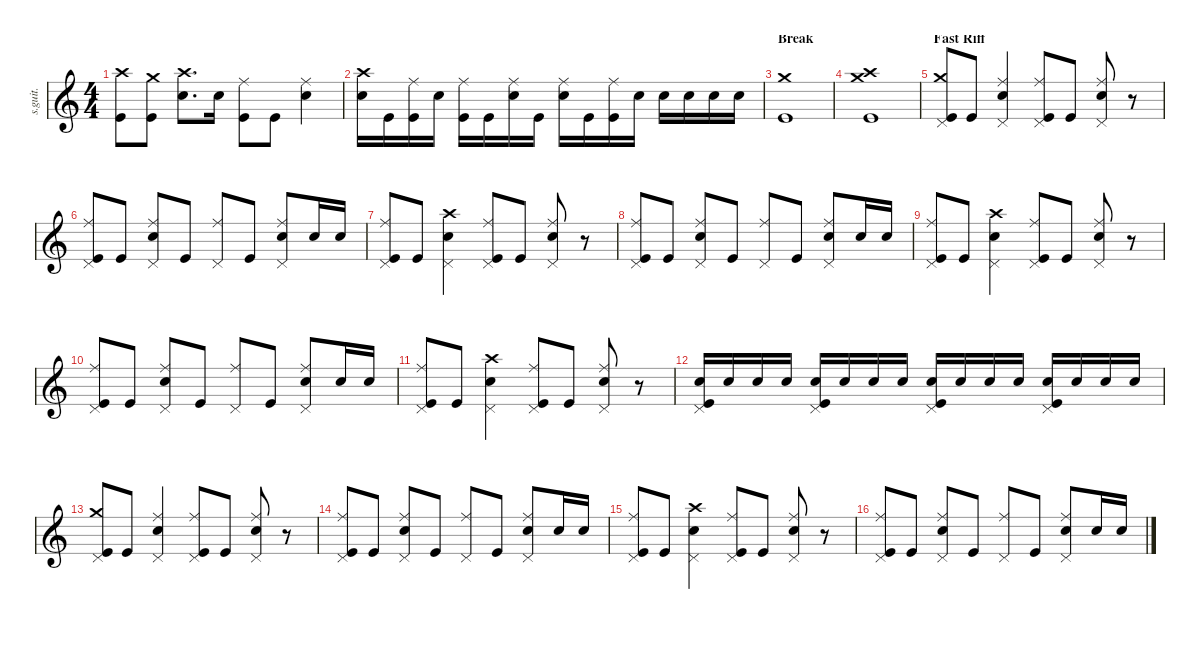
\defaultSystemsLayout 4
\hideDynamics
\bracketExtendMode nobrackets
\track ("Dave Grohl" "s.guit.") {instrument percussion}
\staff {score}
\articulation defaults
\ts (4 4)
\tempo (105 hide)
\clef g2
\ks c
("Crash high (hit)" "Kick (hit)").8{lyrics (0 "") lyrics (1 "") lyrics (2 "") lyrics (3 "") lyrics (4 "") dy f} ("Kick (hit)" "Crash medium (hit)").8{lyrics (0 "") lyrics (1 "") lyrics (2 "") lyrics (3 "") lyrics (4 "")} ("Snare (hit) 2" "Crash high (hit)").8{d lyrics (0 "") lyrics (1 "") lyrics (2 "") lyrics (3 "") lyrics (4 "")} "Snare (hit) 2".16{lyrics (0 "") lyrics (1 "") lyrics (2 "") lyrics (3 "") lyrics (4 "")} ("Ride (middle)" "Kick (hit)").8{lyrics (0 "") lyrics (1 "") lyrics (2 "") lyrics (3 "") lyrics (4 "")} "Kick (hit)".8{lyrics (0 "") lyrics (1 "") lyrics (2 "") lyrics (3 "") lyrics (4 "")} ("Ride (middle)" "Snare (hit) 2").4{lyrics (0 "") lyrics (1 "") lyrics (2 "") lyrics (3 "") lyrics (4 "")} |
("Crash high (hit)" "Snare (hit) 2").16{lyrics (0 "") lyrics (1 "") lyrics (2 "") lyrics (3 "") lyrics (4 "")} "Kick (hit)".16{lyrics (0 "") lyrics (1 "") lyrics (2 "") lyrics (3 "") lyrics (4 "")} ("Ride (middle)" "Kick (hit)").16{lyrics (0 "") lyrics (1 "") lyrics (2 "") lyrics (3 "") lyrics (4 "")} "Snare (hit) 2".16{lyrics (0 "") lyrics (1 "") lyrics (2 "") lyrics (3 "") lyrics (4 "")} ("Ride (middle)" "Kick (hit)").16{lyrics (0 "") lyrics (1 "") lyrics (2 "") lyrics (3 "") lyrics (4 "")} "Kick (hit)".16{lyrics (0 "") lyrics (1 "") lyrics (2 "") lyrics (3 "") lyrics (4 "")} ("Ride (middle)" "Snare (hit) 2").16{lyrics (0 "") lyrics (1 "") lyrics (2 "") lyrics (3 "") lyrics (4 "")} "Kick (hit)".16{lyrics (0 "") lyrics (1 "") lyrics (2 "") lyrics (3 "") lyrics (4 "")} ("Ride (middle)" "Snare (hit) 2").16{lyrics (0 "") lyrics (1 "") lyrics (2 "") lyrics (3 "") lyrics (4 "")} "Kick (hit)".16{lyrics (0 "") lyrics (1 "") lyrics (2 "") lyrics (3 "") lyrics (4 "")} ("Ride (middle)" "Kick (hit)").16{lyrics (0 "") lyrics (1 "") lyrics (2 "") lyrics (3 "") lyrics (4 "")} "Snare (hit) 2".16{lyrics (0 "") lyrics (1 "") lyrics (2 "") lyrics (3 "") lyrics (4 "")} "Snare (hit) 2".16{lyrics (0 "") lyrics (1 "") lyrics (2 "") lyrics (3 "") lyrics (4 "")} "Snare (hit) 2".16{lyrics (0 "") lyrics (1 "") lyrics (2 "") lyrics (3 "") lyrics (4 "")} "Snare (hit) 2".16{lyrics (0 "") lyrics (1 "") lyrics (2 "") lyrics (3 "") lyrics (4 "")} "Snare (hit) 2".16{lyrics (0 "") lyrics (1 "") lyrics (2 "") lyrics (3 "") lyrics (4 "")} |
\section ("" "Break")
("Crash medium (hit)" "Kick (hit)").1{lyrics (0 "") lyrics (1 "") lyrics (2 "") lyrics (3 "") lyrics (4 "")} |
("Crash high (hit)" "Crash medium (hit)" "Kick (hit)").1{lyrics (0 "") lyrics (1 "") lyrics (2 "") lyrics (3 "") lyrics (4 "") dy mf} |
\section ("" "Fast Riff")
\tempo (210 hide)
("Pedal Hi-Hat (hit)" "Crash medium (hit)" "Kick (hit)").8{lyrics (0 "") lyrics (1 "") lyrics (2 "") lyrics (3 "") lyrics (4 "") dy f} "Kick (hit)".8{lyrics (0 "") lyrics (1 "") lyrics (2 "") lyrics (3 "") lyrics (4 "")} ("Pedal Hi-Hat (hit)" "Ride (middle)" "Snare (hit) 2").4{lyrics (0 "") lyrics (1 "") lyrics (2 "") lyrics (3 "") lyrics (4 "")} ("Pedal Hi-Hat (hit)" "Ride (middle)" "Kick (hit)").8{lyrics (0 "") lyrics (1 "") lyrics (2 "") lyrics (3 "") lyrics (4 "")} "Kick (hit)".8{lyrics (0 "") lyrics (1 "") lyrics (2 "") lyrics (3 "") lyrics (4 "")} ("Pedal Hi-Hat (hit)" "Ride (middle)" "Snare (hit) 2").8{lyrics (0 "") lyrics (1 "") lyrics (2 "") lyrics (3 "") lyrics (4 "")} r.8 |
("Pedal Hi-Hat (hit)" "Ride (middle)" "Kick (hit)").8{lyrics (0 "") lyrics (1 "") lyrics (2 "") lyrics (3 "") lyrics (4 "")} "Kick (hit)".8{lyrics (0 "") lyrics (1 "") lyrics (2 "") lyrics (3 "") lyrics (4 "")} ("Pedal Hi-Hat (hit)" "Ride (middle)" "Snare (hit) 2").8{lyrics (0 "") lyrics (1 "") lyrics (2 "") lyrics (3 "") lyrics (4 "")} "Kick (hit)".8{lyrics (0 "") lyrics (1 "") lyrics (2 "") lyrics (3 "") lyrics (4 "")} ("Pedal Hi-Hat (hit)" "Ride (middle)").8{lyrics (0 "") lyrics (1 "") lyrics (2 "") lyrics (3 "") lyrics (4 "")} "Kick (hit)".8{lyrics (0 "") lyrics (1 "") lyrics (2 "") lyrics (3 "") lyrics (4 "")} ("Pedal Hi-Hat (hit)" "Ride (middle)" "Snare (hit) 2").8{lyrics (0 "") lyrics (1 "") lyrics (2 "") lyrics (3 "") lyrics (4 "")} "Snare (hit) 2".16{lyrics (0 "") lyrics (1 "") lyrics (2 "") lyrics (3 "") lyrics (4 "") dy mf} "Snare (hit) 2".16{lyrics (0 "") lyrics (1 "") lyrics (2 "") lyrics (3 "") lyrics (4 "")} |
("Pedal Hi-Hat (hit)" "Ride (middle)" "Kick (hit)").8{lyrics (0 "") lyrics (1 "") lyrics (2 "") lyrics (3 "") lyrics (4 "") dy f} "Kick (hit)".8{lyrics (0 "") lyrics (1 "") lyrics (2 "") lyrics (3 "") lyrics (4 "")} ("Pedal Hi-Hat (hit)" "Crash high (hit)" "Snare (hit) 2").4{lyrics (0 "") lyrics (1 "") lyrics (2 "") lyrics (3 "") lyrics (4 "")} ("Pedal Hi-Hat (hit)" "Ride (middle)" "Kick (hit)").8{lyrics (0 "") lyrics (1 "") lyrics (2 "") lyrics (3 "") lyrics (4 "")} "Kick (hit)".8{lyrics (0 "") lyrics (1 "") lyrics (2 "") lyrics (3 "") lyrics (4 "")} ("Pedal Hi-Hat (hit)" "Ride (middle)" "Snare (hit) 2").8{lyrics (0 "") lyrics (1 "") lyrics (2 "") lyrics (3 "") lyrics (4 "")} r.8 |
("Pedal Hi-Hat (hit)" "Ride (middle)" "Kick (hit)").8{lyrics (0 "") lyrics (1 "") lyrics (2 "") lyrics (3 "") lyrics (4 "")} "Kick (hit)".8{lyrics (0 "") lyrics (1 "") lyrics (2 "") lyrics (3 "") lyrics (4 "")} ("Pedal Hi-Hat (hit)" "Ride (middle)" "Snare (hit) 2").8{lyrics (0 "") lyrics (1 "") lyrics (2 "") lyrics (3 "") lyrics (4 "")} "Kick (hit)".8{lyrics (0 "") lyrics (1 "") lyrics (2 "") lyrics (3 "") lyrics (4 "")} ("Pedal Hi-Hat (hit)" "Ride (middle)").8{lyrics (0 "") lyrics (1 "") lyrics (2 "") lyrics (3 "") lyrics (4 "")} "Kick (hit)".8{lyrics (0 "") lyrics (1 "") lyrics (2 "") lyrics (3 "") lyrics (4 "")} ("Pedal Hi-Hat (hit)" "Ride (middle)" "Snare (hit) 2").8{lyrics (0 "") lyrics (1 "") lyrics (2 "") lyrics (3 "") lyrics (4 "")} "Snare (hit) 2".16{lyrics (0 "") lyrics (1 "") lyrics (2 "") lyrics (3 "") lyrics (4 "") dy mf} "Snare (hit) 2".16{lyrics (0 "") lyrics (1 "") lyrics (2 "") lyrics (3 "") lyrics (4 "")} |
("Pedal Hi-Hat (hit)" "Ride (middle)" "Kick (hit)").8{lyrics (0 "") lyrics (1 "") lyrics (2 "") lyrics (3 "") lyrics (4 "") dy f} "Kick (hit)".8{lyrics (0 "") lyrics (1 "") lyrics (2 "") lyrics (3 "") lyrics (4 "")} ("Pedal Hi-Hat (hit)" "Crash high (hit)" "Snare (hit) 2").4{lyrics (0 "") lyrics (1 "") lyrics (2 "") lyrics (3 "") lyrics (4 "")} ("Pedal Hi-Hat (hit)" "Ride (middle)" "Kick (hit)").8{lyrics (0 "") lyrics (1 "") lyrics (2 "") lyrics (3 "") lyrics (4 "")} "Kick (hit)".8{lyrics (0 "") lyrics (1 "") lyrics (2 "") lyrics (3 "") lyrics (4 "")} ("Pedal Hi-Hat (hit)" "Ride (middle)" "Snare (hit) 2").8{lyrics (0 "") lyrics (1 "") lyrics (2 "") lyrics (3 "") lyrics (4 "")} r.8 |
("Pedal Hi-Hat (hit)" "Ride (middle)" "Kick (hit)").8{lyrics (0 "") lyrics (1 "") lyrics (2 "") lyrics (3 "") lyrics (4 "")} "Kick (hit)".8{lyrics (0 "") lyrics (1 "") lyrics (2 "") lyrics (3 "") lyrics (4 "")} ("Pedal Hi-Hat (hit)" "Ride (middle)" "Snare (hit) 2").8{lyrics (0 "") lyrics (1 "") lyrics (2 "") lyrics (3 "") lyrics (4 "")} "Kick (hit)".8{lyrics (0 "") lyrics (1 "") lyrics (2 "") lyrics (3 "") lyrics (4 "")} ("Pedal Hi-Hat (hit)" "Ride (middle)").8{lyrics (0 "") lyrics (1 "") lyrics (2 "") lyrics (3 "") lyrics (4 "")} "Kick (hit)".8{lyrics (0 "") lyrics (1 "") lyrics (2 "") lyrics (3 "") lyrics (4 "")} ("Pedal Hi-Hat (hit)" "Ride (middle)" "Snare (hit) 2").8{lyrics (0 "") lyrics (1 "") lyrics (2 "") lyrics (3 "") lyrics (4 "")} "Snare (hit) 2".16{lyrics (0 "") lyrics (1 "") lyrics (2 "") lyrics (3 "") lyrics (4 "") dy mf} "Snare (hit) 2".16{lyrics (0 "") lyrics (1 "") lyrics (2 "") lyrics (3 "") lyrics (4 "")} |
("Pedal Hi-Hat (hit)" "Ride (middle)" "Kick (hit)").8{lyrics (0 "") lyrics (1 "") lyrics (2 "") lyrics (3 "") lyrics (4 "") dy f} "Kick (hit)".8{lyrics (0 "") lyrics (1 "") lyrics (2 "") lyrics (3 "") lyrics (4 "")} ("Pedal Hi-Hat (hit)" "Crash high (hit)" "Snare (hit) 2").4{lyrics (0 "") lyrics (1 "") lyrics (2 "") lyrics (3 "") lyrics (4 "")} ("Pedal Hi-Hat (hit)" "Ride (middle)" "Kick (hit)").8{lyrics (0 "") lyrics (1 "") lyrics (2 "") lyrics (3 "") lyrics (4 "")} "Kick (hit)".8{lyrics (0 "") lyrics (1 "") lyrics (2 "") lyrics (3 "") lyrics (4 "")} ("Pedal Hi-Hat (hit)" "Ride (middle)" "Snare (hit) 2").8{lyrics (0 "") lyrics (1 "") lyrics (2 "") lyrics (3 "") lyrics (4 "")} r.8 |
("Pedal Hi-Hat (hit)" "Snare (hit) 2" "Kick (hit)").16{lyrics (0 "") lyrics (1 "") lyrics (2 "") lyrics (3 "") lyrics (4 "") dy mf} "Snare (hit) 2".16{lyrics (0 "") lyrics (1 "") lyrics (2 "") lyrics (3 "") lyrics (4 "")} "Snare (hit) 2".16{lyrics (0 "") lyrics (1 "") lyrics (2 "") lyrics (3 "") lyrics (4 "")} "Snare (hit) 2".16{lyrics (0 "") lyrics (1 "") lyrics (2 "") lyrics (3 "") lyrics (4 "")} ("Pedal Hi-Hat (hit)" "Snare (hit) 2" "Kick (hit)").16{lyrics (0 "") lyrics (1 "") lyrics (2 "") lyrics (3 "") lyrics (4 "")} "Snare (hit) 2".16{lyrics (0 "") lyrics (1 "") lyrics (2 "") lyrics (3 "") lyrics (4 "")} "Snare (hit) 2".16{lyrics (0 "") lyrics (1 "") lyrics (2 "") lyrics (3 "") lyrics (4 "") dy mp} "Snare (hit) 2".16{lyrics (0 "") lyrics (1 "") lyrics (2 "") lyrics (3 "") lyrics (4 "") dy mf} ("Pedal Hi-Hat (hit)" "Snare (hit) 2" "Kick (hit)").16{lyrics (0 "") lyrics (1 "") lyrics (2 "") lyrics (3 "") lyrics (4 "")} "Snare (hit) 2".16{lyrics (0 "") lyrics (1 "") lyrics (2 "") lyrics (3 "") lyrics (4 "") dy mp} "Snare (hit) 2".16{lyrics (0 "") lyrics (1 "") lyrics (2 "") lyrics (3 "") lyrics (4 "")} "Snare (hit) 2".16{lyrics (0 "") lyrics (1 "") lyrics (2 "") lyrics (3 "") lyrics (4 "") dy mf} ("Pedal Hi-Hat (hit)" "Snare (hit) 2" "Kick (hit)").16{lyrics (0 "") lyrics (1 "") lyrics (2 "") lyrics (3 "") lyrics (4 "")} "Snare (hit) 2".16{lyrics (0 "") lyrics (1 "") lyrics (2 "") lyrics (3 "") lyrics (4 "")} "Snare (hit) 2".16{lyrics (0 "") lyrics (1 "") lyrics (2 "") lyrics (3 "") lyrics (4 "")} "Snare (hit) 2".16{lyrics (0 "") lyrics (1 "") lyrics (2 "") lyrics (3 "") lyrics (4 "") dy f} |
("Pedal Hi-Hat (hit)" "Crash medium (hit)" "Kick (hit)").8{lyrics (0 "") lyrics (1 "") lyrics (2 "") lyrics (3 "") lyrics (4 "")} "Kick (hit)".8{lyrics (0 "") lyrics (1 "") lyrics (2 "") lyrics (3 "") lyrics (4 "")} ("Pedal Hi-Hat (hit)" "Ride (middle)" "Snare (hit) 2").4{lyrics (0 "") lyrics (1 "") lyrics (2 "") lyrics (3 "") lyrics (4 "")} ("Pedal Hi-Hat (hit)" "Ride (middle)" "Kick (hit)").8{lyrics (0 "") lyrics (1 "") lyrics (2 "") lyrics (3 "") lyrics (4 "")} "Kick (hit)".8{lyrics (0 "") lyrics (1 "") lyrics (2 "") lyrics (3 "") lyrics (4 "")} ("Pedal Hi-Hat (hit)" "Ride (middle)" "Snare (hit) 2").8{lyrics (0 "") lyrics (1 "") lyrics (2 "") lyrics (3 "") lyrics (4 "")} r.8 |
("Pedal Hi-Hat (hit)" "Ride (middle)" "Kick (hit)").8{lyrics (0 "") lyrics (1 "") lyrics (2 "") lyrics (3 "") lyrics (4 "")} "Kick (hit)".8{lyrics (0 "") lyrics (1 "") lyrics (2 "") lyrics (3 "") lyrics (4 "")} ("Pedal Hi-Hat (hit)" "Ride (middle)" "Snare (hit) 2").8{lyrics (0 "") lyrics (1 "") lyrics (2 "") lyrics (3 "") lyrics (4 "")} "Kick (hit)".8{lyrics (0 "") lyrics (1 "") lyrics (2 "") lyrics (3 "") lyrics (4 "")} ("Pedal Hi-Hat (hit)" "Ride (middle)").8{lyrics (0 "") lyrics (1 "") lyrics (2 "") lyrics (3 "") lyrics (4 "")} "Kick (hit)".8{lyrics (0 "") lyrics (1 "") lyrics (2 "") lyrics (3 "") lyrics (4 "")} ("Pedal Hi-Hat (hit)" "Ride (middle)" "Snare (hit) 2").8{lyrics (0 "") lyrics (1 "") lyrics (2 "") lyrics (3 "") lyrics (4 "")} "Snare (hit) 2".16{lyrics (0 "") lyrics (1 "") lyrics (2 "") lyrics (3 "") lyrics (4 "") dy mf} "Snare (hit) 2".16{lyrics (0 "") lyrics (1 "") lyrics (2 "") lyrics (3 "") lyrics (4 "")} |
("Pedal Hi-Hat (hit)" "Ride (middle)" "Kick (hit)").8{lyrics (0 "") lyrics (1 "") lyrics (2 "") lyrics (3 "") lyrics (4 "") dy f} "Kick (hit)".8{lyrics (0 "") lyrics (1 "") lyrics (2 "") lyrics (3 "") lyrics (4 "")} ("Pedal Hi-Hat (hit)" "Crash high (hit)" "Snare (hit) 2").4{lyrics (0 "") lyrics (1 "") lyrics (2 "") lyrics (3 "") lyrics (4 "")} ("Pedal Hi-Hat (hit)" "Ride (middle)" "Kick (hit)").8{lyrics (0 "") lyrics (1 "") lyrics (2 "") lyrics (3 "") lyrics (4 "")} "Kick (hit)".8{lyrics (0 "") lyrics (1 "") lyrics (2 "") lyrics (3 "") lyrics (4 "")} ("Pedal Hi-Hat (hit)" "Ride (middle)" "Snare (hit) 2").8{lyrics (0 "") lyrics (1 "") lyrics (2 "") lyrics (3 "") lyrics (4 "")} r.8 |
("Pedal Hi-Hat (hit)" "Ride (middle)" "Kick (hit)").8{lyrics (0 "") lyrics (1 "") lyrics (2 "") lyrics (3 "") lyrics (4 "")} "Kick (hit)".8{lyrics (0 "") lyrics (1 "") lyrics (2 "") lyrics (3 "") lyrics (4 "")} ("Pedal Hi-Hat (hit)" "Ride (middle)" "Snare (hit) 2").8{lyrics (0 "") lyrics (1 "") lyrics (2 "") lyrics (3 "") lyrics (4 "")} "Kick (hit)".8{lyrics (0 "") lyrics (1 "") lyrics (2 "") lyrics (3 "") lyrics (4 "")} ("Pedal Hi-Hat (hit)" "Ride (middle)").8{lyrics (0 "") lyrics (1 "") lyrics (2 "") lyrics (3 "") lyrics (4 "")} "Kick (hit)".8{lyrics (0 "") lyrics (1 "") lyrics (2 "") lyrics (3 "") lyrics (4 "")} ("Pedal Hi-Hat (hit)" "Ride (middle)" "Snare (hit) 2").8{lyrics (0 "") lyrics (1 "") lyrics (2 "") lyrics (3 "") lyrics (4 "")} "Snare (hit) 2".16{lyrics (0 "") lyrics (1 "") lyrics (2 "") lyrics (3 "") lyrics (4 "") dy mf} "Snare (hit) 2".16{lyrics (0 "") lyrics (1 "") lyrics (2 "") lyrics (3 "") lyrics (4 "")}
